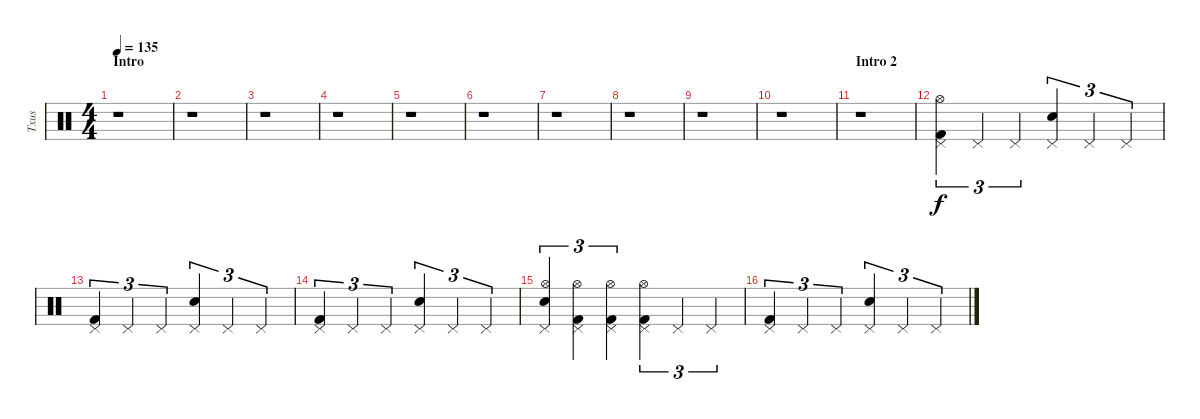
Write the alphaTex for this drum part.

\track ("Txus" "Txus") {instrument percussion}
\staff {score}
\articulation defaults
\ts (4 4)
\section ("" "Intro")
\tempo 135
\tempo 95
\tempo 135
\clef neutral
\ks c
r.1{dy f} |
r.1 |
r.1 |
r.1 |
r.1 |
r.1 |
r.1 |
r.1 |
r.1 |
r.1 |
\section ("" "Intro 2")
r.1 |
("Pedal Hi-Hat (hit)" "Kick (hit) 2" "Hi-Hat (open)").4{tu (3 2)} "Pedal Hi-Hat (hit)".4{tu (3 2)} "Pedal Hi-Hat (hit)".4{tu (3 2)} ("Pedal Hi-Hat (hit)" "Snare (hit) 2").4{tu (3 2)} "Pedal Hi-Hat (hit)".4{tu (3 2)} "Pedal Hi-Hat (hit)".4{tu (3 2)} |
("Pedal Hi-Hat (hit)" "Kick (hit) 2").4{tu (3 2)} "Pedal Hi-Hat (hit)".4{tu (3 2)} "Pedal Hi-Hat (hit)".4{tu (3 2)} ("Pedal Hi-Hat (hit)" "Snare (hit) 2").4{tu (3 2)} "Pedal Hi-Hat (hit)".4{tu (3 2)} "Pedal Hi-Hat (hit)".4{tu (3 2)} |
("Pedal Hi-Hat (hit)" "Kick (hit) 2").4{tu (3 2)} "Pedal Hi-Hat (hit)".4{tu (3 2)} "Pedal Hi-Hat (hit)".4{tu (3 2)} ("Pedal Hi-Hat (hit)" "Snare (hit) 2").4{tu (3 2)} "Pedal Hi-Hat (hit)".4{tu (3 2)} "Pedal Hi-Hat (hit)".4{tu (3 2)} |
("Pedal Hi-Hat (hit)" "Snare (hit) 2" "Hi-Hat (open)").4{tu (3 2)} ("Pedal Hi-Hat (hit)" "Kick (hit) 2" "Hi-Hat (open)").4{tu (3 2)} ("Pedal Hi-Hat (hit)" "Kick (hit) 2" "Hi-Hat (open)").4{tu (3 2)} ("Pedal Hi-Hat (hit)" "Kick (hit) 2" "Hi-Hat (open)").4{tu (3 2)} "Pedal Hi-Hat (hit)".4{tu (3 2)} "Pedal Hi-Hat (hit)".4{tu (3 2)} |
("Pedal Hi-Hat (hit)" "Kick (hit) 2").4{tu (3 2)} "Pedal Hi-Hat (hit)".4{tu (3 2)} "Pedal Hi-Hat (hit)".4{tu (3 2)} ("Pedal Hi-Hat (hit)" "Snare (hit) 2").4{tu (3 2)} "Pedal Hi-Hat (hit)".4{tu (3 2)} "Pedal Hi-Hat (hit)".4{tu (3 2)}
